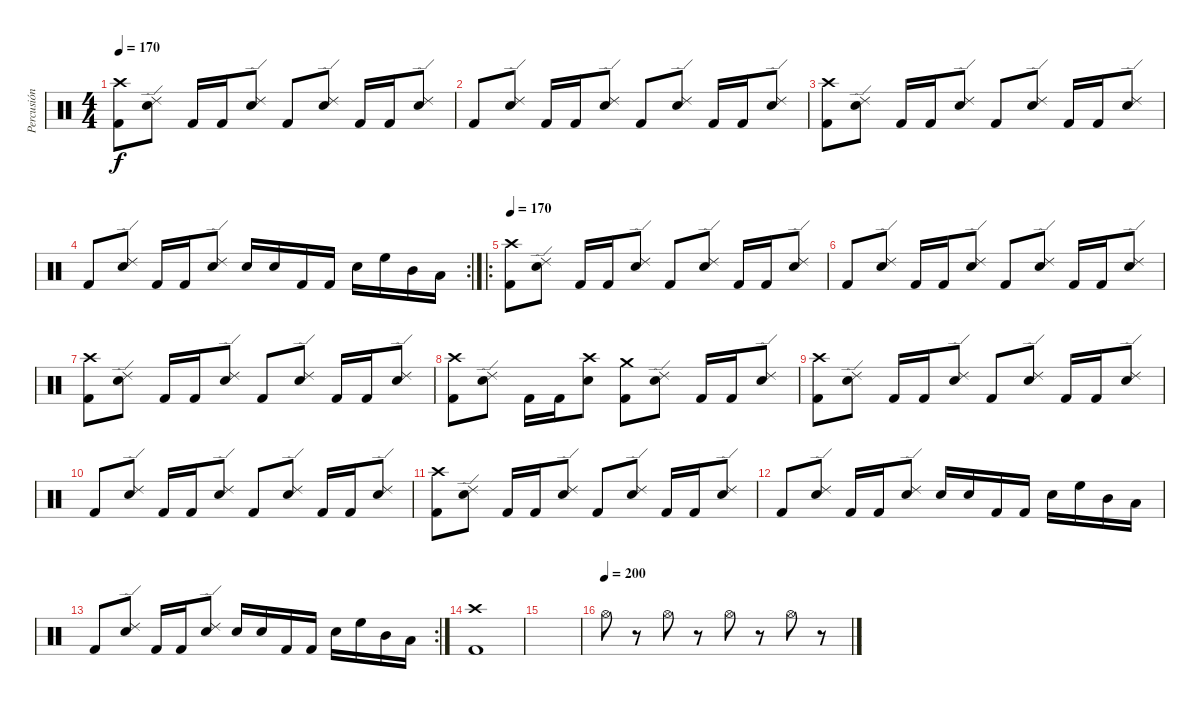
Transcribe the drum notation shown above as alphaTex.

\track ("Percusión" "Percusión") {instrument percussion}
\staff {score}
\articulation defaults
\ts (4 4)
\tempo 170
\clef neutral
\ks c
("Crash high (hit)" "Kick (hit) 2").8{dy f} ("Ride (edge) 2" "Electric Snare (hit)").8 "Kick (hit) 2".16 "Kick (hit) 2".16 ("Ride (edge) 2" "Electric Snare (hit)").8 "Kick (hit) 2".8 ("Ride (edge) 2" "Electric Snare (hit)").8 "Kick (hit) 2".16 "Kick (hit) 2".16 ("Ride (edge) 2" "Electric Snare (hit)").8 |
"Kick (hit) 2".8 ("Ride (edge) 2" "Electric Snare (hit)").8 "Kick (hit) 2".16 "Kick (hit) 2".16 ("Ride (edge) 2" "Electric Snare (hit)").8 "Kick (hit) 2".8 ("Ride (edge) 2" "Electric Snare (hit)").8 "Kick (hit) 2".16 "Kick (hit) 2".16 ("Ride (edge) 2" "Electric Snare (hit)").8 |
("Crash high (hit)" "Kick (hit) 2").8 ("Ride (edge) 2" "Electric Snare (hit)").8 "Kick (hit) 2".16 "Kick (hit) 2".16 ("Ride (edge) 2" "Electric Snare (hit)").8 "Kick (hit) 2".8 ("Ride (edge) 2" "Electric Snare (hit)").8 "Kick (hit) 2".16 "Kick (hit) 2".16 ("Ride (edge) 2" "Electric Snare (hit)").8 |
\rc 2 "Kick (hit) 2".8
("Ride (edge) 2" "Electric Snare (hit)").8 "Kick (hit) 2".16 "Kick (hit) 2".16 ("Ride (edge) 2" "Electric Snare (hit)").8 "Electric Snare (hit)".16 "Electric Snare (hit)".16 "Kick (hit) 2".16 "Kick (hit) 2".16 "Electric Snare (hit)".16 "High Floor Tom (hit)".16 "Mid Tom (hit)".16 "Low Tom (hit)".16 |
\ro
\tempo 170
("Crash high (hit)" "Kick (hit) 2").8 ("Ride (edge) 2" "Electric Snare (hit)").8 "Kick (hit) 2".16 "Kick (hit) 2".16 ("Ride (edge) 2" "Electric Snare (hit)").8 "Kick (hit) 2".8 ("Ride (edge) 2" "Electric Snare (hit)").8 "Kick (hit) 2".16 "Kick (hit) 2".16 ("Ride (edge) 2" "Electric Snare (hit)").8 |
"Kick (hit) 2".8 ("Ride (edge) 2" "Electric Snare (hit)").8 "Kick (hit) 2".16 "Kick (hit) 2".16 ("Ride (edge) 2" "Electric Snare (hit)").8 "Kick (hit) 2".8 ("Ride (edge) 2" "Electric Snare (hit)").8 "Kick (hit) 2".16 "Kick (hit) 2".16 ("Ride (edge) 2" "Electric Snare (hit)").8 |
("Crash high (hit)" "Kick (hit) 2").8 ("Ride (edge) 2" "Electric Snare (hit)").8 "Kick (hit) 2".16 "Kick (hit) 2".16 ("Ride (edge) 2" "Electric Snare (hit)").8 "Kick (hit) 2".8 ("Ride (edge) 2" "Electric Snare (hit)").8 "Kick (hit) 2".16 "Kick (hit) 2".16 ("Ride (edge) 2" "Electric Snare (hit)").8 |
("Crash high (hit)" "Kick (hit) 2").8 ("Ride (edge) 2" "Electric Snare (hit)").8 "Kick (hit) 2".16 "Kick (hit) 2".16 ("Crash high (hit)" "Electric Snare (hit)").8 ("Crash medium (hit)" "Kick (hit) 2").8 ("Ride (edge) 2" "Electric Snare (hit)").8 "Kick (hit) 2".16 "Kick (hit) 2".16 ("Ride (edge) 2" "Electric Snare (hit)").8 |
("Crash high (hit)" "Kick (hit) 2").8 ("Ride (edge) 2" "Electric Snare (hit)").8 "Kick (hit) 2".16 "Kick (hit) 2".16 ("Ride (edge) 2" "Electric Snare (hit)").8 "Kick (hit) 2".8 ("Ride (edge) 2" "Electric Snare (hit)").8 "Kick (hit) 2".16 "Kick (hit) 2".16 ("Ride (edge) 2" "Electric Snare (hit)").8 |
"Kick (hit) 2".8 ("Ride (edge) 2" "Electric Snare (hit)").8 "Kick (hit) 2".16 "Kick (hit) 2".16 ("Ride (edge) 2" "Electric Snare (hit)").8 "Kick (hit) 2".8 ("Ride (edge) 2" "Electric Snare (hit)").8 "Kick (hit) 2".16 "Kick (hit) 2".16 ("Ride (edge) 2" "Electric Snare (hit)").8 |
("Crash high (hit)" "Kick (hit) 2").8 ("Ride (edge) 2" "Electric Snare (hit)").8 "Kick (hit) 2".16 "Kick (hit) 2".16 ("Ride (edge) 2" "Electric Snare (hit)").8 "Kick (hit) 2".8 ("Ride (edge) 2" "Electric Snare (hit)").8 "Kick (hit) 2".16 "Kick (hit) 2".16 ("Ride (edge) 2" "Electric Snare (hit)").8 |
"Kick (hit) 2".8 ("Ride (edge) 2" "Electric Snare (hit)").8 "Kick (hit) 2".16 "Kick (hit) 2".16 ("Ride (edge) 2" "Electric Snare (hit)").8 "Electric Snare (hit)".16 "Electric Snare (hit)".16 "Kick (hit) 2".16 "Kick (hit) 2".16 "Electric Snare (hit)".16 "High Floor Tom (hit)".16 "Mid Tom (hit)".16 "Low Tom (hit)".16 |
\rc 2 "Kick (hit) 2".8
("Ride (edge) 2" "Electric Snare (hit)").8 "Kick (hit) 2".16 "Kick (hit) 2".16 ("Ride (edge) 2" "Electric Snare (hit)").8 "Electric Snare (hit)".16 "Electric Snare (hit)".16 "Kick (hit) 2".16 "Kick (hit) 2".16 "Electric Snare (hit)".16 "High Floor Tom (hit)".16 "Mid Tom (hit)".16 "Low Tom (hit)".16 |
("Crash high (hit)" "Kick (hit) 2").1 |
|
\tempo (200)
"Hi-Hat (open)".8 r.8 "Hi-Hat (open)".8 r.8 "Hi-Hat (open)".8 r.8 "Hi-Hat (open)".8 r.8
